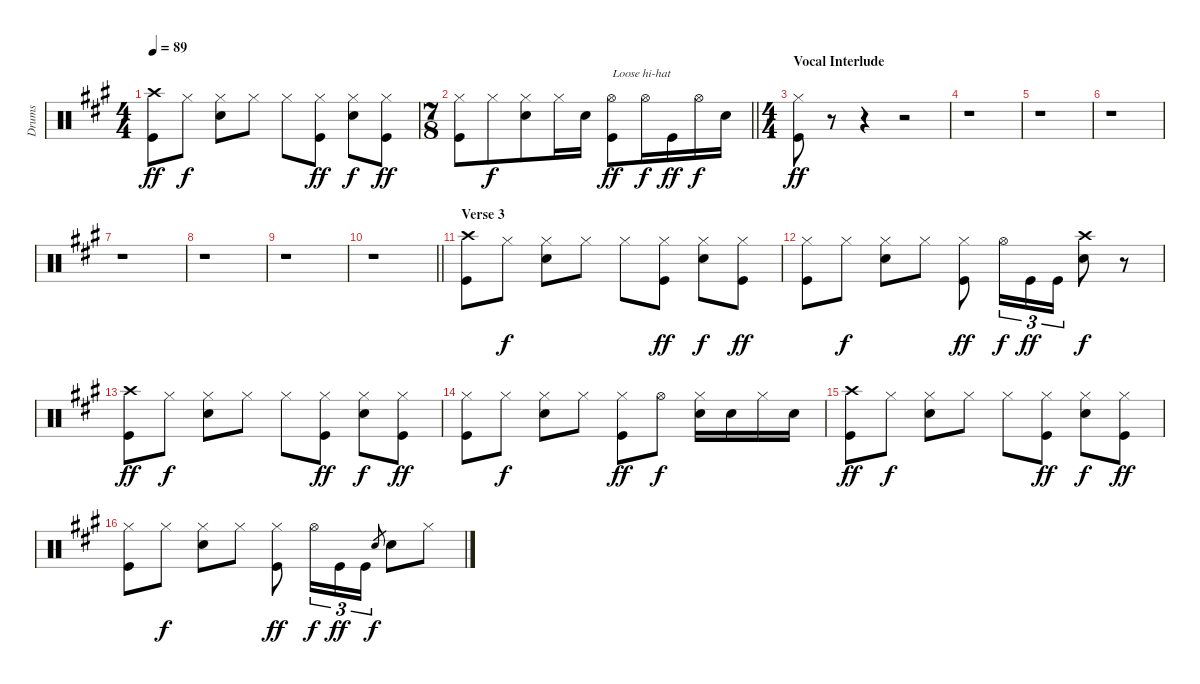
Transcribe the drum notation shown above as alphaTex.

\track ("Drums" "Drums") {instrument percussion}
\staff {score}
\articulation defaults
\ts (4 4)
\tempo 89
\clef neutral
\ks a
("Crash high (hit)" "Kick (hit)").8{dy ff} "Hi-Hat (closed)".8{dy f} ("Hi-Hat (closed)" "Snare (hit) 2").8 "Hi-Hat (closed)".8 "Hi-Hat (closed)".8 ("Hi-Hat (closed)" "Kick (hit)").8{dy ff} ("Hi-Hat (closed)" "Snare (hit) 2").8{dy f} ("Hi-Hat (closed)" "Kick (hit)").8{dy ff} |
\ts (7 8)
\barLineRight lightlight
("Hi-Hat (closed)" "Kick (hit)").8 "Hi-Hat (closed)".8{dy f} ("Hi-Hat (closed)" "Snare (hit) 2").8 "Hi-Hat (closed)".16 "Snare (hit) 2".16 ("Hi-Hat (open)" "Kick (hit)").8{txt "Loose hi-hat" dy ff} "Hi-Hat (open)".16{dy f} "Kick (hit)".16{dy ff} "Hi-Hat (open)".16{dy f} "Snare (hit) 2".16 |
\ts (4 4)
\section ("" "Vocal Interlude")
("Hi-Hat (closed)" "Kick (hit)").8{dy ff} r.8 r.4 r.2 |
r.1 |
r.1 |
r.1 |
r.1 |
r.1 |
r.1 |
\barLineRight lightlight
r.1 |
\section ("" "Verse 3")
("Crash high (hit)" "Kick (hit)").8 "Hi-Hat (closed)".8{dy f} ("Hi-Hat (closed)" "Snare (hit) 2").8 "Hi-Hat (closed)".8 "Hi-Hat (closed)".8 ("Hi-Hat (closed)" "Kick (hit)").8{dy ff} ("Hi-Hat (closed)" "Snare (hit) 2").8{dy f} ("Hi-Hat (closed)" "Kick (hit)").8{dy ff} |
("Hi-Hat (closed)" "Kick (hit)").8 "Hi-Hat (closed)".8{dy f} ("Hi-Hat (closed)" "Snare (hit) 2").8 "Hi-Hat (closed)".8 ("Hi-Hat (closed)" "Kick (hit)").8{dy ff} "Hi-Hat (open)".16{tu (3 2) dy f} "Kick (hit)".16{tu (3 2) dy ff} "Kick (hit)".16{tu (3 2)} ("Crash high (hit)" "Snare (hit) 2").8{dy f} r.8 |
("Crash high (hit)" "Kick (hit)").8{dy ff} "Hi-Hat (closed)".8{dy f} ("Hi-Hat (closed)" "Snare (hit) 2").8 "Hi-Hat (closed)".8 "Hi-Hat (closed)".8 ("Hi-Hat (closed)" "Kick (hit)").8{dy ff} ("Hi-Hat (closed)" "Snare (hit) 2").8{dy f} ("Hi-Hat (closed)" "Kick (hit)").8{dy ff} |
("Hi-Hat (closed)" "Kick (hit)").8 "Hi-Hat (closed)".8{dy f} ("Hi-Hat (closed)" "Snare (hit) 2").8 "Hi-Hat (closed)".8 ("Hi-Hat (closed)" "Kick (hit)").8{dy ff} "Hi-Hat (open)".8{dy f} ("Hi-Hat (closed)" "Snare (hit) 2").16 "Snare (hit) 2".16 "Hi-Hat (closed)".16 "Snare (hit) 2".16 |
("Crash high (hit)" "Kick (hit)").8{dy ff} "Hi-Hat (closed)".8{dy f} ("Hi-Hat (closed)" "Snare (hit) 2").8 "Hi-Hat (closed)".8 "Hi-Hat (closed)".8 ("Hi-Hat (closed)" "Kick (hit)").8{dy ff} ("Hi-Hat (closed)" "Snare (hit) 2").8{dy f} ("Hi-Hat (closed)" "Kick (hit)").8{dy ff} |
("Hi-Hat (closed)" "Kick (hit)").8 "Hi-Hat (closed)".8{dy f} ("Hi-Hat (closed)" "Snare (hit) 2").8 "Hi-Hat (closed)".8 ("Hi-Hat (closed)" "Kick (hit)").8{dy ff} "Hi-Hat (open)".16{tu (3 2) dy f} "Kick (hit)".16{tu (3 2) dy ff} "Kick (hit)".16{tu (3 2)} "Snare (hit) 2".8{gr dy f} "Snare (hit) 2".8 "Hi-Hat (closed)".8
